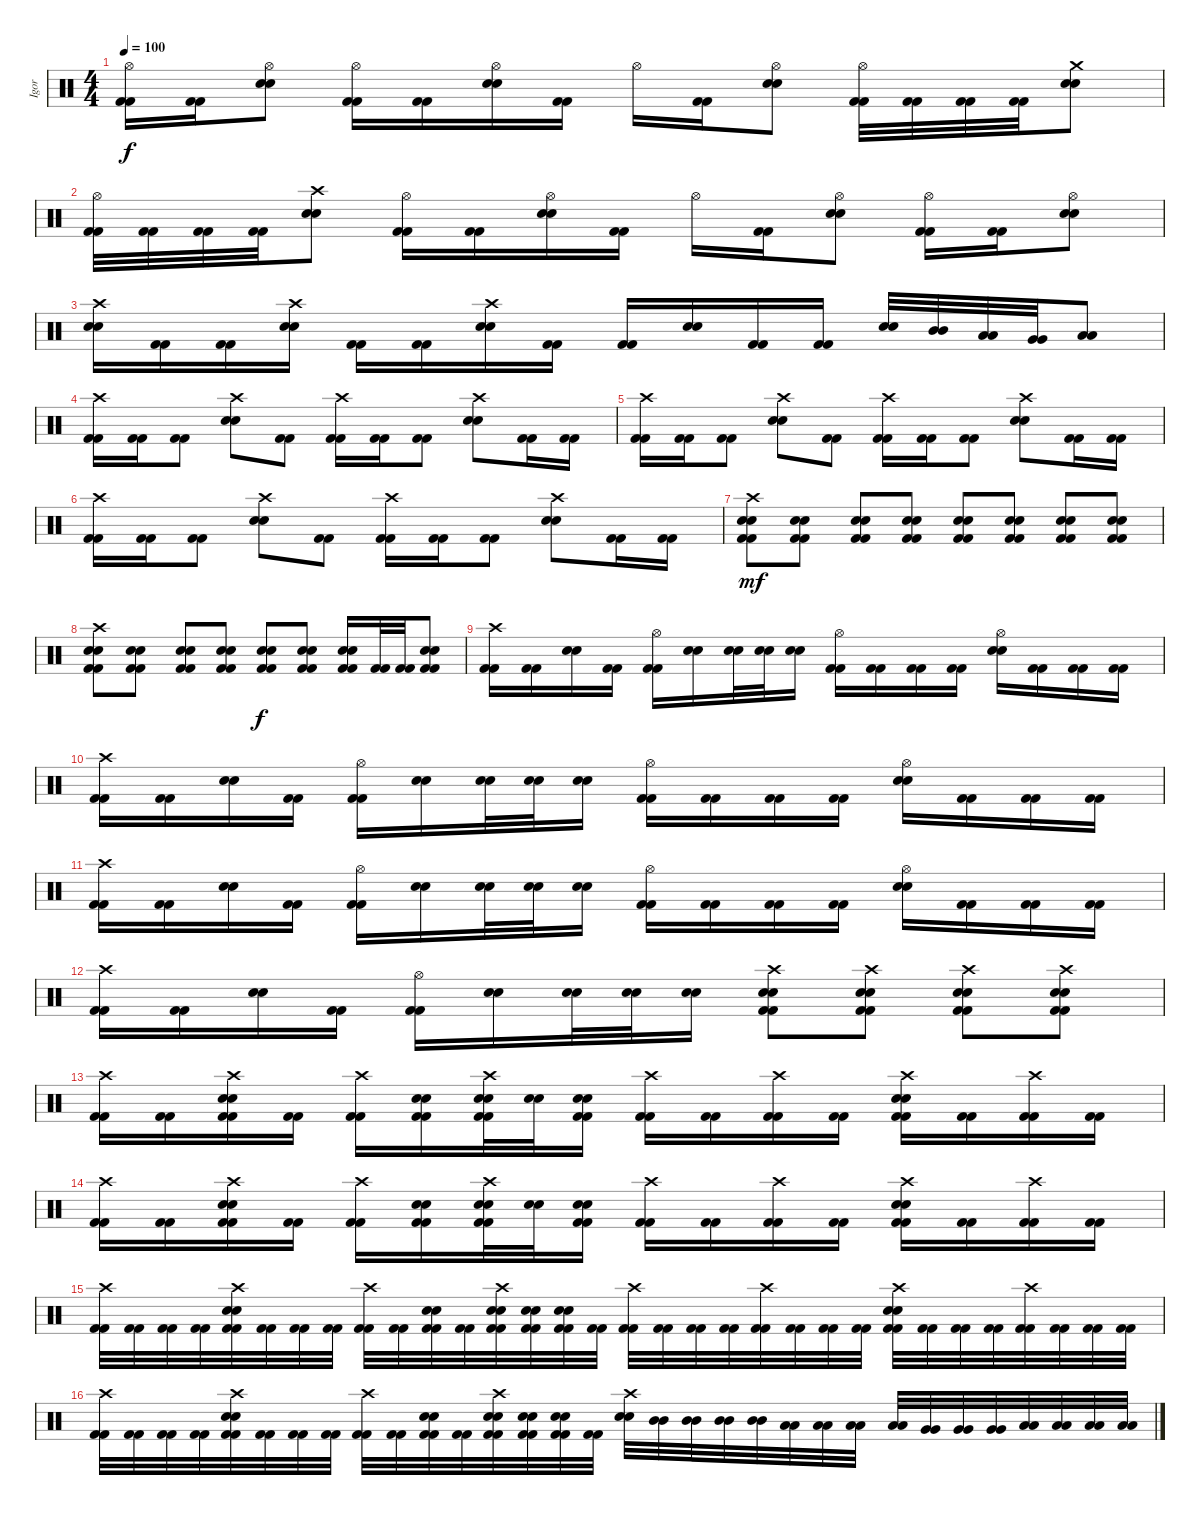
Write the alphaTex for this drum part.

\track ("Igor" "Igor") {instrument percussion}
\staff {score}
\articulation defaults
\ts (4 4)
\tempo 100
\clef neutral
\ks c
("Hi-Hat (open)" "Kick (hit) 2" "Kick (hit) 2").16{dy f} ("Kick (hit) 2" "Kick (hit) 2").16 ("Hi-Hat (open)" "Electric Snare (hit)" "Electric Snare (hit)").8 ("Hi-Hat (open)" "Kick (hit) 2" "Kick (hit) 2").16 ("Kick (hit) 2" "Kick (hit) 2").16 ("Hi-Hat (open)" "Electric Snare (hit)" "Electric Snare (hit)").16 ("Kick (hit) 2" "Kick (hit) 2").16 "Hi-Hat (open)".16 ("Kick (hit) 2" "Kick (hit) 2").16 ("Hi-Hat (open)" "Electric Snare (hit)" "Electric Snare (hit)").8 ("Hi-Hat (open)" "Kick (hit) 2" "Kick (hit) 2").32 ("Kick (hit) 2" "Kick (hit) 2").32 ("Kick (hit) 2" "Kick (hit) 2").32 ("Kick (hit) 2" "Kick (hit) 2").32 ("Crash medium (hit)" "Electric Snare (hit)" "Electric Snare (hit)").8 |
("Hi-Hat (open)" "Kick (hit) 2" "Kick (hit) 2").32 ("Kick (hit) 2" "Kick (hit) 2").32 ("Kick (hit) 2" "Kick (hit) 2").32 ("Kick (hit) 2" "Kick (hit) 2").32 ("Crash high (hit)" "Electric Snare (hit)" "Electric Snare (hit)").8 ("Hi-Hat (open)" "Kick (hit) 2" "Kick (hit) 2").16 ("Kick (hit) 2" "Kick (hit) 2").16 ("Hi-Hat (open)" "Electric Snare (hit)" "Electric Snare (hit)").16 ("Kick (hit) 2" "Kick (hit) 2").16 "Hi-Hat (open)".16 ("Kick (hit) 2" "Kick (hit) 2").16 ("Hi-Hat (open)" "Electric Snare (hit)" "Electric Snare (hit)").8 ("Hi-Hat (open)" "Kick (hit) 2" "Kick (hit) 2").16 ("Kick (hit) 2" "Kick (hit) 2").16 ("Hi-Hat (open)" "Electric Snare (hit)" "Electric Snare (hit)").8 |
("Crash high (hit)" "Electric Snare (hit)" "Electric Snare (hit)").16 ("Kick (hit) 2" "Kick (hit) 2").16 ("Kick (hit) 2" "Kick (hit) 2").16 ("Crash high (hit)" "Electric Snare (hit)" "Electric Snare (hit)").16 ("Kick (hit) 2" "Kick (hit) 2").16 ("Kick (hit) 2" "Kick (hit) 2").16 ("Crash high (hit)" "Electric Snare (hit)" "Electric Snare (hit)").16 ("Kick (hit) 2" "Kick (hit) 2").16 ("Kick (hit) 2" "Kick (hit) 2").16 ("Electric Snare (hit)" "Electric Snare (hit)").16 ("Kick (hit) 2" "Kick (hit) 2").16 ("Kick (hit) 2" "Kick (hit) 2").16 ("Electric Snare (hit)" "Electric Snare (hit)").32 ("Mid Tom (hit)" "Mid Tom (hit)").32 ("Low Tom (hit)" "Low Tom (hit)").32 ("Very Low Tom (hit)" "Very Low Tom (hit)").32 ("Low Floor Tom (hit)" "Low Floor Tom (hit)").8 |
("Crash high (hit)" "Kick (hit) 2" "Kick (hit) 2").16 ("Kick (hit) 2" "Kick (hit) 2").16 ("Kick (hit) 2" "Kick (hit) 2").8 ("Crash high (hit)" "Electric Snare (hit)" "Electric Snare (hit)").8 ("Kick (hit) 2" "Kick (hit) 2").8 ("Crash high (hit)" "Kick (hit) 2" "Kick (hit) 2").16 ("Kick (hit) 2" "Kick (hit) 2").16 ("Kick (hit) 2" "Kick (hit) 2").8 ("Crash high (hit)" "Electric Snare (hit)" "Electric Snare (hit)").8 ("Kick (hit) 2" "Kick (hit) 2").16 ("Kick (hit) 2" "Kick (hit) 2").16 |
("Crash high (hit)" "Kick (hit) 2" "Kick (hit) 2").16 ("Kick (hit) 2" "Kick (hit) 2").16 ("Kick (hit) 2" "Kick (hit) 2").8 ("Crash high (hit)" "Electric Snare (hit)" "Electric Snare (hit)").8 ("Kick (hit) 2" "Kick (hit) 2").8 ("Crash high (hit)" "Kick (hit) 2" "Kick (hit) 2").16 ("Kick (hit) 2" "Kick (hit) 2").16 ("Kick (hit) 2" "Kick (hit) 2").8 ("Crash high (hit)" "Electric Snare (hit)" "Electric Snare (hit)").8 ("Kick (hit) 2" "Kick (hit) 2").16 ("Kick (hit) 2" "Kick (hit) 2").16 |
("Crash high (hit)" "Kick (hit) 2" "Kick (hit) 2").16 ("Kick (hit) 2" "Kick (hit) 2").16 ("Kick (hit) 2" "Kick (hit) 2").8 ("Crash high (hit)" "Electric Snare (hit)" "Electric Snare (hit)").8 ("Kick (hit) 2" "Kick (hit) 2").8 ("Crash high (hit)" "Kick (hit) 2" "Kick (hit) 2").16 ("Kick (hit) 2" "Kick (hit) 2").16 ("Kick (hit) 2" "Kick (hit) 2").8 ("Crash high (hit)" "Electric Snare (hit)" "Electric Snare (hit)").8 ("Kick (hit) 2" "Kick (hit) 2").16 ("Kick (hit) 2" "Kick (hit) 2").16 |
("Crash high (hit)" "Electric Snare (hit)" "Electric Snare (hit)" "Kick (hit) 2" "Kick (hit) 2").8{dy mf} ("Electric Snare (hit)" "Electric Snare (hit)" "Kick (hit) 2" "Kick (hit) 2").8 ("Electric Snare (hit)" "Electric Snare (hit)" "Kick (hit) 2" "Kick (hit) 2").8 ("Electric Snare (hit)" "Electric Snare (hit)" "Kick (hit) 2" "Kick (hit) 2").8 ("Electric Snare (hit)" "Electric Snare (hit)" "Kick (hit) 2" "Kick (hit) 2").8 ("Electric Snare (hit)" "Electric Snare (hit)" "Kick (hit) 2" "Kick (hit) 2").8 ("Electric Snare (hit)" "Electric Snare (hit)" "Kick (hit) 2" "Kick (hit) 2").8 ("Electric Snare (hit)" "Electric Snare (hit)" "Kick (hit) 2" "Kick (hit) 2").8 |
("Crash high (hit)" "Electric Snare (hit)" "Electric Snare (hit)" "Kick (hit) 2" "Kick (hit) 2").8 ("Electric Snare (hit)" "Electric Snare (hit)" "Kick (hit) 2" "Kick (hit) 2").8 ("Electric Snare (hit)" "Electric Snare (hit)" "Kick (hit) 2" "Kick (hit) 2").8 ("Electric Snare (hit)" "Electric Snare (hit)" "Kick (hit) 2" "Kick (hit) 2").8 ("Electric Snare (hit)" "Electric Snare (hit)" "Kick (hit) 2" "Kick (hit) 2").8{dy f} ("Electric Snare (hit)" "Electric Snare (hit)" "Kick (hit) 2" "Kick (hit) 2").8 ("Electric Snare (hit)" "Electric Snare (hit)" "Kick (hit) 2" "Kick (hit) 2").16 ("Kick (hit) 2" "Kick (hit) 2").32 ("Kick (hit) 2" "Kick (hit) 2").32 ("Electric Snare (hit)" "Electric Snare (hit)" "Kick (hit) 2" "Kick (hit) 2").8 |
("Crash high (hit)" "Kick (hit) 2" "Kick (hit) 2").16 ("Kick (hit) 2" "Kick (hit) 2").16 ("Electric Snare (hit)" "Electric Snare (hit)").16 ("Kick (hit) 2" "Kick (hit) 2").16 ("Hi-Hat (open)" "Kick (hit) 2" "Kick (hit) 2").16 ("Electric Snare (hit)" "Electric Snare (hit)").16 ("Electric Snare (hit)" "Electric Snare (hit)").32 ("Electric Snare (hit)" "Electric Snare (hit)").32 ("Electric Snare (hit)" "Electric Snare (hit)").16 ("Hi-Hat (open)" "Kick (hit) 2" "Kick (hit) 2").16 ("Kick (hit) 2" "Kick (hit) 2").16 ("Kick (hit) 2" "Kick (hit) 2").16 ("Kick (hit) 2" "Kick (hit) 2").16 ("Hi-Hat (open)" "Electric Snare (hit)" "Electric Snare (hit)").16 ("Kick (hit) 2" "Kick (hit) 2").16 ("Kick (hit) 2" "Kick (hit) 2").16 ("Kick (hit) 2" "Kick (hit) 2").16 |
("Crash high (hit)" "Kick (hit) 2" "Kick (hit) 2").16 ("Kick (hit) 2" "Kick (hit) 2").16 ("Electric Snare (hit)" "Electric Snare (hit)").16 ("Kick (hit) 2" "Kick (hit) 2").16 ("Hi-Hat (open)" "Kick (hit) 2" "Kick (hit) 2").16 ("Electric Snare (hit)" "Electric Snare (hit)").16 ("Electric Snare (hit)" "Electric Snare (hit)").32 ("Electric Snare (hit)" "Electric Snare (hit)").32 ("Electric Snare (hit)" "Electric Snare (hit)").16 ("Hi-Hat (open)" "Kick (hit) 2" "Kick (hit) 2").16 ("Kick (hit) 2" "Kick (hit) 2").16 ("Kick (hit) 2" "Kick (hit) 2").16 ("Kick (hit) 2" "Kick (hit) 2").16 ("Hi-Hat (open)" "Electric Snare (hit)" "Electric Snare (hit)").16 ("Kick (hit) 2" "Kick (hit) 2").16 ("Kick (hit) 2" "Kick (hit) 2").16 ("Kick (hit) 2" "Kick (hit) 2").16 |
("Crash high (hit)" "Kick (hit) 2" "Kick (hit) 2").16 ("Kick (hit) 2" "Kick (hit) 2").16 ("Electric Snare (hit)" "Electric Snare (hit)").16 ("Kick (hit) 2" "Kick (hit) 2").16 ("Hi-Hat (open)" "Kick (hit) 2" "Kick (hit) 2").16 ("Electric Snare (hit)" "Electric Snare (hit)").16 ("Electric Snare (hit)" "Electric Snare (hit)").32 ("Electric Snare (hit)" "Electric Snare (hit)").32 ("Electric Snare (hit)" "Electric Snare (hit)").16 ("Hi-Hat (open)" "Kick (hit) 2" "Kick (hit) 2").16 ("Kick (hit) 2" "Kick (hit) 2").16 ("Kick (hit) 2" "Kick (hit) 2").16 ("Kick (hit) 2" "Kick (hit) 2").16 ("Hi-Hat (open)" "Electric Snare (hit)" "Electric Snare (hit)").16 ("Kick (hit) 2" "Kick (hit) 2").16 ("Kick (hit) 2" "Kick (hit) 2").16 ("Kick (hit) 2" "Kick (hit) 2").16 |
("Crash high (hit)" "Kick (hit) 2" "Kick (hit) 2").16 ("Kick (hit) 2" "Kick (hit) 2").16 ("Electric Snare (hit)" "Electric Snare (hit)").16 ("Kick (hit) 2" "Kick (hit) 2").16 ("Hi-Hat (open)" "Kick (hit) 2" "Kick (hit) 2").16 ("Electric Snare (hit)" "Electric Snare (hit)").16 ("Electric Snare (hit)" "Electric Snare (hit)").32 ("Electric Snare (hit)" "Electric Snare (hit)").32 ("Electric Snare (hit)" "Electric Snare (hit)").16 ("Crash high (hit)" "Electric Snare (hit)" "Electric Snare (hit)" "Kick (hit) 2" "Kick (hit) 2").8 ("Crash high (hit)" "Electric Snare (hit)" "Electric Snare (hit)" "Kick (hit) 2" "Kick (hit) 2").8 ("Crash high (hit)" "Electric Snare (hit)" "Electric Snare (hit)" "Kick (hit) 2" "Kick (hit) 2").8 ("Crash high (hit)" "Electric Snare (hit)" "Electric Snare (hit)" "Kick (hit) 2" "Kick (hit) 2").8 |
("Crash high (hit)" "Kick (hit) 2" "Kick (hit) 2").16 ("Kick (hit) 2" "Kick (hit) 2").16 ("Crash high (hit)" "Electric Snare (hit)" "Electric Snare (hit)" "Kick (hit) 2" "Kick (hit) 2").16 ("Kick (hit) 2" "Kick (hit) 2").16 ("Crash high (hit)" "Kick (hit) 2" "Kick (hit) 2").16 ("Electric Snare (hit)" "Electric Snare (hit)" "Kick (hit) 2" "Kick (hit) 2").16 ("Crash high (hit)" "Electric Snare (hit)" "Electric Snare (hit)" "Kick (hit) 2" "Kick (hit) 2").32 ("Electric Snare (hit)" "Electric Snare (hit)").32 ("Electric Snare (hit)" "Electric Snare (hit)" "Kick (hit) 2" "Kick (hit) 2").16 ("Crash high (hit)" "Kick (hit) 2" "Kick (hit) 2").16 ("Kick (hit) 2" "Kick (hit) 2").16 ("Crash high (hit)" "Kick (hit) 2" "Kick (hit) 2").16 ("Kick (hit) 2" "Kick (hit) 2").16 ("Crash high (hit)" "Electric Snare (hit)" "Electric Snare (hit)" "Kick (hit) 2" "Kick (hit) 2").16 ("Kick (hit) 2" "Kick (hit) 2").16 ("Crash high (hit)" "Kick (hit) 2" "Kick (hit) 2").16 ("Kick (hit) 2" "Kick (hit) 2").16 |
("Crash high (hit)" "Kick (hit) 2" "Kick (hit) 2").16 ("Kick (hit) 2" "Kick (hit) 2").16 ("Crash high (hit)" "Electric Snare (hit)" "Electric Snare (hit)" "Kick (hit) 2" "Kick (hit) 2").16 ("Kick (hit) 2" "Kick (hit) 2").16 ("Crash high (hit)" "Kick (hit) 2" "Kick (hit) 2").16 ("Electric Snare (hit)" "Electric Snare (hit)" "Kick (hit) 2" "Kick (hit) 2").16 ("Crash high (hit)" "Electric Snare (hit)" "Electric Snare (hit)" "Kick (hit) 2" "Kick (hit) 2").32 ("Electric Snare (hit)" "Electric Snare (hit)").32 ("Electric Snare (hit)" "Electric Snare (hit)" "Kick (hit) 2" "Kick (hit) 2").16 ("Crash high (hit)" "Kick (hit) 2" "Kick (hit) 2").16 ("Kick (hit) 2" "Kick (hit) 2").16 ("Crash high (hit)" "Kick (hit) 2" "Kick (hit) 2").16 ("Kick (hit) 2" "Kick (hit) 2").16 ("Crash high (hit)" "Electric Snare (hit)" "Electric Snare (hit)" "Kick (hit) 2" "Kick (hit) 2").16 ("Kick (hit) 2" "Kick (hit) 2").16 ("Crash high (hit)" "Kick (hit) 2" "Kick (hit) 2").16 ("Kick (hit) 2" "Kick (hit) 2").16 |
("Crash high (hit)" "Kick (hit) 2" "Kick (hit) 2").32 ("Kick (hit) 2" "Kick (hit) 2").32 ("Kick (hit) 2" "Kick (hit) 2").32 ("Kick (hit) 2" "Kick (hit) 2").32 ("Crash high (hit)" "Electric Snare (hit)" "Electric Snare (hit)" "Kick (hit) 2" "Kick (hit) 2").32 ("Kick (hit) 2" "Kick (hit) 2").32 ("Kick (hit) 2" "Kick (hit) 2").32 ("Kick (hit) 2" "Kick (hit) 2").32 ("Crash high (hit)" "Kick (hit) 2" "Kick (hit) 2").32 ("Kick (hit) 2" "Kick (hit) 2").32 ("Electric Snare (hit)" "Electric Snare (hit)" "Kick (hit) 2" "Kick (hit) 2").32 ("Kick (hit) 2" "Kick (hit) 2").32 ("Crash high (hit)" "Electric Snare (hit)" "Electric Snare (hit)" "Kick (hit) 2" "Kick (hit) 2").32 ("Electric Snare (hit)" "Electric Snare (hit)" "Kick (hit) 2" "Kick (hit) 2").32 ("Electric Snare (hit)" "Electric Snare (hit)" "Kick (hit) 2" "Kick (hit) 2").32 ("Kick (hit) 2" "Kick (hit) 2").32 ("Crash high (hit)" "Kick (hit) 2" "Kick (hit) 2").32 ("Kick (hit) 2" "Kick (hit) 2").32 ("Kick (hit) 2" "Kick (hit) 2").32 ("Kick (hit) 2" "Kick (hit) 2").32 ("Crash high (hit)" "Kick (hit) 2" "Kick (hit) 2").32 ("Kick (hit) 2" "Kick (hit) 2").32 ("Kick (hit) 2" "Kick (hit) 2").32 ("Kick (hit) 2" "Kick (hit) 2").32 ("Crash high (hit)" "Electric Snare (hit)" "Electric Snare (hit)" "Kick (hit) 2" "Kick (hit) 2").32 ("Kick (hit) 2" "Kick (hit) 2").32 ("Kick (hit) 2" "Kick (hit) 2").32 ("Kick (hit) 2" "Kick (hit) 2").32 ("Crash high (hit)" "Kick (hit) 2" "Kick (hit) 2").32 ("Kick (hit) 2" "Kick (hit) 2").32 ("Kick (hit) 2" "Kick (hit) 2").32 ("Kick (hit) 2" "Kick (hit) 2").32 |
("Crash high (hit)" "Kick (hit) 2" "Kick (hit) 2").32 ("Kick (hit) 2" "Kick (hit) 2").32 ("Kick (hit) 2" "Kick (hit) 2").32 ("Kick (hit) 2" "Kick (hit) 2").32 ("Crash high (hit)" "Electric Snare (hit)" "Electric Snare (hit)" "Kick (hit) 2" "Kick (hit) 2").32 ("Kick (hit) 2" "Kick (hit) 2").32 ("Kick (hit) 2" "Kick (hit) 2").32 ("Kick (hit) 2" "Kick (hit) 2").32 ("Crash high (hit)" "Kick (hit) 2" "Kick (hit) 2").32 ("Kick (hit) 2" "Kick (hit) 2").32 ("Electric Snare (hit)" "Electric Snare (hit)" "Kick (hit) 2" "Kick (hit) 2").32 ("Kick (hit) 2" "Kick (hit) 2").32 ("Crash high (hit)" "Electric Snare (hit)" "Electric Snare (hit)" "Kick (hit) 2" "Kick (hit) 2").32 ("Electric Snare (hit)" "Electric Snare (hit)" "Kick (hit) 2" "Kick (hit) 2").32 ("Electric Snare (hit)" "Electric Snare (hit)" "Kick (hit) 2" "Kick (hit) 2").32 ("Kick (hit) 2" "Kick (hit) 2").32 ("Crash high (hit)" "Electric Snare (hit)" "Electric Snare (hit)").32 ("Mid Tom (hit)" "Mid Tom (hit)").32 ("Mid Tom (hit)" "Mid Tom (hit)").32 ("Mid Tom (hit)" "Mid Tom (hit)").32 ("Mid Tom (hit)" "Mid Tom (hit)").32 ("Low Tom (hit)" "Low Tom (hit)").32 ("Low Tom (hit)" "Low Tom (hit)").32 ("Low Tom (hit)" "Low Tom (hit)").32 ("Low Tom (hit)" "Low Tom (hit)").32 ("Very Low Tom (hit)" "Very Low Tom (hit)").32 ("Very Low Tom (hit)" "Very Low Tom (hit)").32 ("Very Low Tom (hit)" "Very Low Tom (hit)").32 ("Low Floor Tom (hit)" "Low Floor Tom (hit)").32 ("Low Floor Tom (hit)" "Low Floor Tom (hit)").32 ("Low Floor Tom (hit)" "Low Floor Tom (hit)").32 ("Low Floor Tom (hit)" "Low Floor Tom (hit)").32
